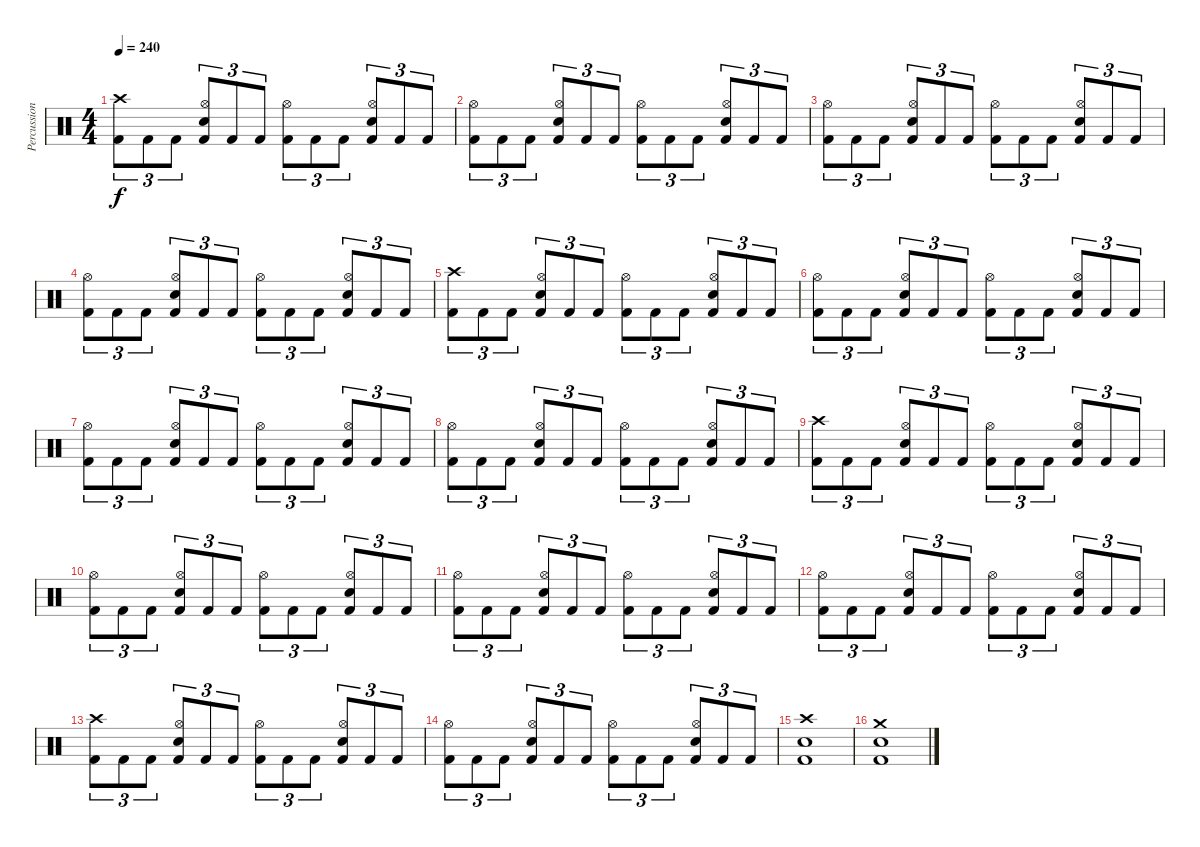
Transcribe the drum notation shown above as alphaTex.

\track ("Percussion" "Percussion") {instrument percussion}
\staff {score}
\articulation defaults
\ts (4 4)
\tempo 240
\clef neutral
\ks c
("Kick (hit) 2" "Crash high (hit)").8{tu (3 2) dy f} "Kick (hit) 2".8{tu (3 2)} "Kick (hit) 2".8{tu (3 2)} ("Kick (hit) 2" "Hi-Hat (open)" "Electric Snare (hit)").8{tu (3 2)} "Kick (hit) 2".8{tu (3 2)} "Kick (hit) 2".8{tu (3 2)} ("Kick (hit) 2" "Hi-Hat (open)").8{tu (3 2)} "Kick (hit) 2".8{tu (3 2)} "Kick (hit) 2".8{tu (3 2)} ("Kick (hit) 2" "Hi-Hat (open)" "Electric Snare (hit)").8{tu (3 2)} "Kick (hit) 2".8{tu (3 2)} "Kick (hit) 2".8{tu (3 2)} |
("Kick (hit) 2" "Hi-Hat (open)").8{tu (3 2)} "Kick (hit) 2".8{tu (3 2)} "Kick (hit) 2".8{tu (3 2)} ("Kick (hit) 2" "Hi-Hat (open)" "Electric Snare (hit)").8{tu (3 2)} "Kick (hit) 2".8{tu (3 2)} "Kick (hit) 2".8{tu (3 2)} ("Kick (hit) 2" "Hi-Hat (open)").8{tu (3 2)} "Kick (hit) 2".8{tu (3 2)} "Kick (hit) 2".8{tu (3 2)} ("Kick (hit) 2" "Hi-Hat (open)" "Electric Snare (hit)").8{tu (3 2)} "Kick (hit) 2".8{tu (3 2)} "Kick (hit) 2".8{tu (3 2)} |
("Kick (hit) 2" "Hi-Hat (open)").8{tu (3 2)} "Kick (hit) 2".8{tu (3 2)} "Kick (hit) 2".8{tu (3 2)} ("Kick (hit) 2" "Hi-Hat (open)" "Electric Snare (hit)").8{tu (3 2)} "Kick (hit) 2".8{tu (3 2)} "Kick (hit) 2".8{tu (3 2)} ("Kick (hit) 2" "Hi-Hat (open)").8{tu (3 2)} "Kick (hit) 2".8{tu (3 2)} "Kick (hit) 2".8{tu (3 2)} ("Kick (hit) 2" "Hi-Hat (open)" "Electric Snare (hit)").8{tu (3 2)} "Kick (hit) 2".8{tu (3 2)} "Kick (hit) 2".8{tu (3 2)} |
("Kick (hit) 2" "Hi-Hat (open)").8{tu (3 2)} "Kick (hit) 2".8{tu (3 2)} "Kick (hit) 2".8{tu (3 2)} ("Kick (hit) 2" "Hi-Hat (open)" "Electric Snare (hit)").8{tu (3 2)} "Kick (hit) 2".8{tu (3 2)} "Kick (hit) 2".8{tu (3 2)} ("Kick (hit) 2" "Hi-Hat (open)").8{tu (3 2)} "Kick (hit) 2".8{tu (3 2)} "Kick (hit) 2".8{tu (3 2)} ("Kick (hit) 2" "Hi-Hat (open)" "Electric Snare (hit)").8{tu (3 2)} "Kick (hit) 2".8{tu (3 2)} "Kick (hit) 2".8{tu (3 2)} |
("Kick (hit) 2" "Crash high (hit)").8{tu (3 2)} "Kick (hit) 2".8{tu (3 2)} "Kick (hit) 2".8{tu (3 2)} ("Kick (hit) 2" "Hi-Hat (open)" "Electric Snare (hit)").8{tu (3 2)} "Kick (hit) 2".8{tu (3 2)} "Kick (hit) 2".8{tu (3 2)} ("Kick (hit) 2" "Hi-Hat (open)").8{tu (3 2)} "Kick (hit) 2".8{tu (3 2)} "Kick (hit) 2".8{tu (3 2)} ("Kick (hit) 2" "Hi-Hat (open)" "Electric Snare (hit)").8{tu (3 2)} "Kick (hit) 2".8{tu (3 2)} "Kick (hit) 2".8{tu (3 2)} |
("Kick (hit) 2" "Hi-Hat (open)").8{tu (3 2)} "Kick (hit) 2".8{tu (3 2)} "Kick (hit) 2".8{tu (3 2)} ("Kick (hit) 2" "Hi-Hat (open)" "Electric Snare (hit)").8{tu (3 2)} "Kick (hit) 2".8{tu (3 2)} "Kick (hit) 2".8{tu (3 2)} ("Kick (hit) 2" "Hi-Hat (open)").8{tu (3 2)} "Kick (hit) 2".8{tu (3 2)} "Kick (hit) 2".8{tu (3 2)} ("Kick (hit) 2" "Hi-Hat (open)" "Electric Snare (hit)").8{tu (3 2)} "Kick (hit) 2".8{tu (3 2)} "Kick (hit) 2".8{tu (3 2)} |
("Kick (hit) 2" "Hi-Hat (open)").8{tu (3 2)} "Kick (hit) 2".8{tu (3 2)} "Kick (hit) 2".8{tu (3 2)} ("Kick (hit) 2" "Hi-Hat (open)" "Electric Snare (hit)").8{tu (3 2)} "Kick (hit) 2".8{tu (3 2)} "Kick (hit) 2".8{tu (3 2)} ("Kick (hit) 2" "Hi-Hat (open)").8{tu (3 2)} "Kick (hit) 2".8{tu (3 2)} "Kick (hit) 2".8{tu (3 2)} ("Kick (hit) 2" "Hi-Hat (open)" "Electric Snare (hit)").8{tu (3 2)} "Kick (hit) 2".8{tu (3 2)} "Kick (hit) 2".8{tu (3 2)} |
("Kick (hit) 2" "Hi-Hat (open)").8{tu (3 2)} "Kick (hit) 2".8{tu (3 2)} "Kick (hit) 2".8{tu (3 2)} ("Kick (hit) 2" "Hi-Hat (open)" "Electric Snare (hit)").8{tu (3 2)} "Kick (hit) 2".8{tu (3 2)} "Kick (hit) 2".8{tu (3 2)} ("Kick (hit) 2" "Hi-Hat (open)").8{tu (3 2)} "Kick (hit) 2".8{tu (3 2)} "Kick (hit) 2".8{tu (3 2)} ("Kick (hit) 2" "Hi-Hat (open)" "Electric Snare (hit)").8{tu (3 2)} "Kick (hit) 2".8{tu (3 2)} "Kick (hit) 2".8{tu (3 2)} |
("Kick (hit) 2" "Crash high (hit)").8{tu (3 2)} "Kick (hit) 2".8{tu (3 2)} "Kick (hit) 2".8{tu (3 2)} ("Kick (hit) 2" "Hi-Hat (open)" "Electric Snare (hit)").8{tu (3 2)} "Kick (hit) 2".8{tu (3 2)} "Kick (hit) 2".8{tu (3 2)} ("Kick (hit) 2" "Hi-Hat (open)").8{tu (3 2)} "Kick (hit) 2".8{tu (3 2)} "Kick (hit) 2".8{tu (3 2)} ("Kick (hit) 2" "Hi-Hat (open)" "Electric Snare (hit)").8{tu (3 2)} "Kick (hit) 2".8{tu (3 2)} "Kick (hit) 2".8{tu (3 2)} |
("Kick (hit) 2" "Hi-Hat (open)").8{tu (3 2)} "Kick (hit) 2".8{tu (3 2)} "Kick (hit) 2".8{tu (3 2)} ("Kick (hit) 2" "Hi-Hat (open)" "Electric Snare (hit)").8{tu (3 2)} "Kick (hit) 2".8{tu (3 2)} "Kick (hit) 2".8{tu (3 2)} ("Kick (hit) 2" "Hi-Hat (open)").8{tu (3 2)} "Kick (hit) 2".8{tu (3 2)} "Kick (hit) 2".8{tu (3 2)} ("Kick (hit) 2" "Hi-Hat (open)" "Electric Snare (hit)").8{tu (3 2)} "Kick (hit) 2".8{tu (3 2)} "Kick (hit) 2".8{tu (3 2)} |
("Kick (hit) 2" "Hi-Hat (open)").8{tu (3 2)} "Kick (hit) 2".8{tu (3 2)} "Kick (hit) 2".8{tu (3 2)} ("Kick (hit) 2" "Hi-Hat (open)" "Electric Snare (hit)").8{tu (3 2)} "Kick (hit) 2".8{tu (3 2)} "Kick (hit) 2".8{tu (3 2)} ("Kick (hit) 2" "Hi-Hat (open)").8{tu (3 2)} "Kick (hit) 2".8{tu (3 2)} "Kick (hit) 2".8{tu (3 2)} ("Kick (hit) 2" "Hi-Hat (open)" "Electric Snare (hit)").8{tu (3 2)} "Kick (hit) 2".8{tu (3 2)} "Kick (hit) 2".8{tu (3 2)} |
("Kick (hit) 2" "Hi-Hat (open)").8{tu (3 2)} "Kick (hit) 2".8{tu (3 2)} "Kick (hit) 2".8{tu (3 2)} ("Kick (hit) 2" "Hi-Hat (open)" "Electric Snare (hit)").8{tu (3 2)} "Kick (hit) 2".8{tu (3 2)} "Kick (hit) 2".8{tu (3 2)} ("Kick (hit) 2" "Hi-Hat (open)").8{tu (3 2)} "Kick (hit) 2".8{tu (3 2)} "Kick (hit) 2".8{tu (3 2)} ("Kick (hit) 2" "Hi-Hat (open)" "Electric Snare (hit)").8{tu (3 2)} "Kick (hit) 2".8{tu (3 2)} "Kick (hit) 2".8{tu (3 2)} |
("Kick (hit) 2" "Crash high (hit)").8{tu (3 2)} "Kick (hit) 2".8{tu (3 2)} "Kick (hit) 2".8{tu (3 2)} ("Kick (hit) 2" "Hi-Hat (open)" "Electric Snare (hit)").8{tu (3 2)} "Kick (hit) 2".8{tu (3 2)} "Kick (hit) 2".8{tu (3 2)} ("Kick (hit) 2" "Hi-Hat (open)").8{tu (3 2)} "Kick (hit) 2".8{tu (3 2)} "Kick (hit) 2".8{tu (3 2)} ("Kick (hit) 2" "Hi-Hat (open)" "Electric Snare (hit)").8{tu (3 2)} "Kick (hit) 2".8{tu (3 2)} "Kick (hit) 2".8{tu (3 2)} |
("Kick (hit) 2" "Hi-Hat (open)").8{tu (3 2)} "Kick (hit) 2".8{tu (3 2)} "Kick (hit) 2".8{tu (3 2)} ("Kick (hit) 2" "Hi-Hat (open)" "Electric Snare (hit)").8{tu (3 2)} "Kick (hit) 2".8{tu (3 2)} "Kick (hit) 2".8{tu (3 2)} ("Kick (hit) 2" "Hi-Hat (open)").8{tu (3 2)} "Kick (hit) 2".8{tu (3 2)} "Kick (hit) 2".8{tu (3 2)} ("Kick (hit) 2" "Hi-Hat (open)" "Electric Snare (hit)").8{tu (3 2)} "Kick (hit) 2".8{tu (3 2)} "Kick (hit) 2".8{tu (3 2)} |
("Kick (hit) 2" "Electric Snare (hit)" "Crash high (hit)").1 |
("Kick (hit) 2" "Electric Snare (hit)" "Crash medium (hit)").1
